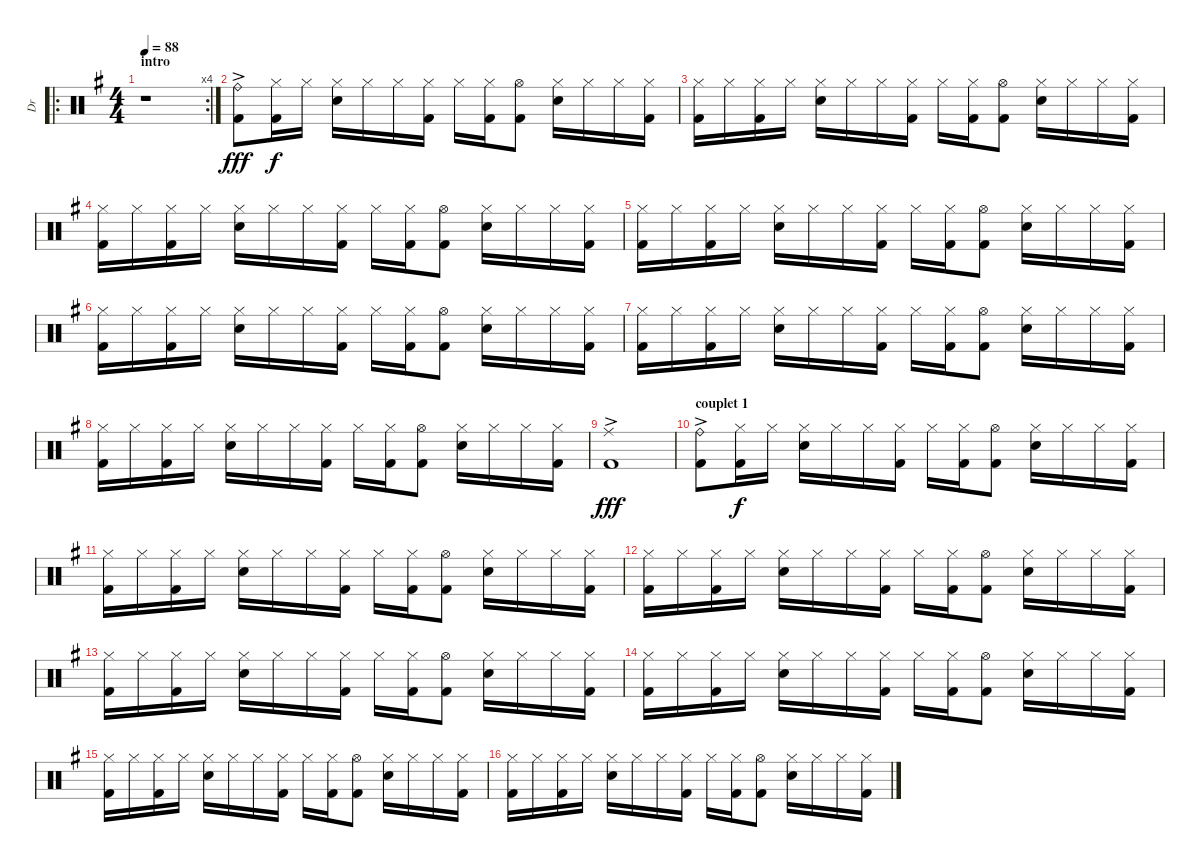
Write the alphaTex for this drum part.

\track ("Dr" "Dr") {instrument percussion}
\staff {score}
\articulation defaults
\ro
\rc 4
\ts (4 4)
\section ("" "intro")
\tempo 88
\clef neutral
\ks g
r.1{dy fff} |
("Ride (bell)"{ac} "Kick (hit) 2"{ac}).8 ("Hi-Hat (closed)" "Kick (hit) 2").16{dy f} "Hi-Hat (closed)".16 ("Hi-Hat (closed)" "Electric Snare (hit)").16 "Hi-Hat (closed)".16 "Hi-Hat (closed)".16 ("Hi-Hat (closed)" "Kick (hit) 2").16 "Hi-Hat (closed)".16 ("Hi-Hat (closed)" "Kick (hit) 2").16 ("Hi-Hat (open)" "Kick (hit) 2").8 ("Hi-Hat (closed)" "Electric Snare (hit)").16 "Hi-Hat (closed)".16 "Hi-Hat (closed)".16 ("Hi-Hat (closed)" "Kick (hit) 2").16 |
("Hi-Hat (closed)" "Kick (hit) 2").16 "Hi-Hat (closed)".16 ("Hi-Hat (closed)" "Kick (hit) 2").16 "Hi-Hat (closed)".16 ("Hi-Hat (closed)" "Electric Snare (hit)").16 "Hi-Hat (closed)".16 "Hi-Hat (closed)".16 ("Hi-Hat (closed)" "Kick (hit) 2").16 "Hi-Hat (closed)".16 ("Hi-Hat (closed)" "Kick (hit) 2").16 ("Hi-Hat (open)" "Kick (hit) 2").8 ("Hi-Hat (closed)" "Electric Snare (hit)").16 "Hi-Hat (closed)".16 "Hi-Hat (closed)".16 ("Hi-Hat (closed)" "Kick (hit) 2").16 |
("Hi-Hat (closed)" "Kick (hit) 2").16 "Hi-Hat (closed)".16 ("Hi-Hat (closed)" "Kick (hit) 2").16 "Hi-Hat (closed)".16 ("Hi-Hat (closed)" "Electric Snare (hit)").16 "Hi-Hat (closed)".16 "Hi-Hat (closed)".16 ("Hi-Hat (closed)" "Kick (hit) 2").16 "Hi-Hat (closed)".16 ("Hi-Hat (closed)" "Kick (hit) 2").16 ("Hi-Hat (open)" "Kick (hit) 2").8 ("Hi-Hat (closed)" "Electric Snare (hit)").16 "Hi-Hat (closed)".16 "Hi-Hat (closed)".16 ("Hi-Hat (closed)" "Kick (hit) 2").16 |
("Hi-Hat (closed)" "Kick (hit) 2").16 "Hi-Hat (closed)".16 ("Hi-Hat (closed)" "Kick (hit) 2").16 "Hi-Hat (closed)".16 ("Hi-Hat (closed)" "Electric Snare (hit)").16 "Hi-Hat (closed)".16 "Hi-Hat (closed)".16 ("Hi-Hat (closed)" "Kick (hit) 2").16 "Hi-Hat (closed)".16 ("Hi-Hat (closed)" "Kick (hit) 2").16 ("Hi-Hat (open)" "Kick (hit) 2").8 ("Hi-Hat (closed)" "Electric Snare (hit)").16 "Hi-Hat (closed)".16 "Hi-Hat (closed)".16 ("Hi-Hat (closed)" "Kick (hit) 2").16 |
("Hi-Hat (closed)" "Kick (hit) 2").16 "Hi-Hat (closed)".16 ("Hi-Hat (closed)" "Kick (hit) 2").16 "Hi-Hat (closed)".16 ("Hi-Hat (closed)" "Electric Snare (hit)").16 "Hi-Hat (closed)".16 "Hi-Hat (closed)".16 ("Hi-Hat (closed)" "Kick (hit) 2").16 "Hi-Hat (closed)".16 ("Hi-Hat (closed)" "Kick (hit) 2").16 ("Hi-Hat (open)" "Kick (hit) 2").8 ("Hi-Hat (closed)" "Electric Snare (hit)").16 "Hi-Hat (closed)".16 "Hi-Hat (closed)".16 ("Hi-Hat (closed)" "Kick (hit) 2").16 |
("Hi-Hat (closed)" "Kick (hit) 2").16 "Hi-Hat (closed)".16 ("Hi-Hat (closed)" "Kick (hit) 2").16 "Hi-Hat (closed)".16 ("Hi-Hat (closed)" "Electric Snare (hit)").16 "Hi-Hat (closed)".16 "Hi-Hat (closed)".16 ("Hi-Hat (closed)" "Kick (hit) 2").16 "Hi-Hat (closed)".16 ("Hi-Hat (closed)" "Kick (hit) 2").16 ("Hi-Hat (open)" "Kick (hit) 2").8 ("Hi-Hat (closed)" "Electric Snare (hit)").16 "Hi-Hat (closed)".16 "Hi-Hat (closed)".16 ("Hi-Hat (closed)" "Kick (hit) 2").16 |
("Hi-Hat (closed)" "Kick (hit) 2").16 "Hi-Hat (closed)".16 ("Hi-Hat (closed)" "Kick (hit) 2").16 "Hi-Hat (closed)".16 ("Hi-Hat (closed)" "Electric Snare (hit)").16 "Hi-Hat (closed)".16 "Hi-Hat (closed)".16 ("Hi-Hat (closed)" "Kick (hit) 2").16 "Hi-Hat (closed)".16 ("Hi-Hat (closed)" "Kick (hit) 2").16 ("Hi-Hat (open)" "Kick (hit) 2").8 ("Hi-Hat (closed)" "Electric Snare (hit)").16 "Hi-Hat (closed)".16 "Hi-Hat (closed)".16 ("Hi-Hat (closed)" "Kick (hit) 2").16 |
("Ride (middle)"{ac} "Kick (hit) 2"{ac}).1{dy fff} |
\section ("" "couplet 1")
("Ride (bell)"{ac} "Kick (hit) 2"{ac}).8 ("Hi-Hat (closed)" "Kick (hit) 2").16{dy f} "Hi-Hat (closed)".16 ("Hi-Hat (closed)" "Electric Snare (hit)").16 "Hi-Hat (closed)".16 "Hi-Hat (closed)".16 ("Hi-Hat (closed)" "Kick (hit) 2").16 "Hi-Hat (closed)".16 ("Hi-Hat (closed)" "Kick (hit) 2").16 ("Hi-Hat (open)" "Kick (hit) 2").8 ("Hi-Hat (closed)" "Electric Snare (hit)").16 "Hi-Hat (closed)".16 "Hi-Hat (closed)".16 ("Hi-Hat (closed)" "Kick (hit) 2").16 |
("Hi-Hat (closed)" "Kick (hit) 2").16 "Hi-Hat (closed)".16 ("Hi-Hat (closed)" "Kick (hit) 2").16 "Hi-Hat (closed)".16 ("Hi-Hat (closed)" "Electric Snare (hit)").16 "Hi-Hat (closed)".16 "Hi-Hat (closed)".16 ("Hi-Hat (closed)" "Kick (hit) 2").16 "Hi-Hat (closed)".16 ("Hi-Hat (closed)" "Kick (hit) 2").16 ("Hi-Hat (open)" "Kick (hit) 2").8 ("Hi-Hat (closed)" "Electric Snare (hit)").16 "Hi-Hat (closed)".16 "Hi-Hat (closed)".16 ("Hi-Hat (closed)" "Kick (hit) 2").16 |
("Hi-Hat (closed)" "Kick (hit) 2").16 "Hi-Hat (closed)".16 ("Hi-Hat (closed)" "Kick (hit) 2").16 "Hi-Hat (closed)".16 ("Hi-Hat (closed)" "Electric Snare (hit)").16 "Hi-Hat (closed)".16 "Hi-Hat (closed)".16 ("Hi-Hat (closed)" "Kick (hit) 2").16 "Hi-Hat (closed)".16 ("Hi-Hat (closed)" "Kick (hit) 2").16 ("Hi-Hat (open)" "Kick (hit) 2").8 ("Hi-Hat (closed)" "Electric Snare (hit)").16 "Hi-Hat (closed)".16 "Hi-Hat (closed)".16 ("Hi-Hat (closed)" "Kick (hit) 2").16 |
("Hi-Hat (closed)" "Kick (hit) 2").16 "Hi-Hat (closed)".16 ("Hi-Hat (closed)" "Kick (hit) 2").16 "Hi-Hat (closed)".16 ("Hi-Hat (closed)" "Electric Snare (hit)").16 "Hi-Hat (closed)".16 "Hi-Hat (closed)".16 ("Hi-Hat (closed)" "Kick (hit) 2").16 "Hi-Hat (closed)".16 ("Hi-Hat (closed)" "Kick (hit) 2").16 ("Hi-Hat (open)" "Kick (hit) 2").8 ("Hi-Hat (closed)" "Electric Snare (hit)").16 "Hi-Hat (closed)".16 "Hi-Hat (closed)".16 ("Hi-Hat (closed)" "Kick (hit) 2").16 |
("Hi-Hat (closed)" "Kick (hit) 2").16 "Hi-Hat (closed)".16 ("Hi-Hat (closed)" "Kick (hit) 2").16 "Hi-Hat (closed)".16 ("Hi-Hat (closed)" "Electric Snare (hit)").16 "Hi-Hat (closed)".16 "Hi-Hat (closed)".16 ("Hi-Hat (closed)" "Kick (hit) 2").16 "Hi-Hat (closed)".16 ("Hi-Hat (closed)" "Kick (hit) 2").16 ("Hi-Hat (open)" "Kick (hit) 2").8 ("Hi-Hat (closed)" "Electric Snare (hit)").16 "Hi-Hat (closed)".16 "Hi-Hat (closed)".16 ("Hi-Hat (closed)" "Kick (hit) 2").16 |
("Hi-Hat (closed)" "Kick (hit) 2").16 "Hi-Hat (closed)".16 ("Hi-Hat (closed)" "Kick (hit) 2").16 "Hi-Hat (closed)".16 ("Hi-Hat (closed)" "Electric Snare (hit)").16 "Hi-Hat (closed)".16 "Hi-Hat (closed)".16 ("Hi-Hat (closed)" "Kick (hit) 2").16 "Hi-Hat (closed)".16 ("Hi-Hat (closed)" "Kick (hit) 2").16 ("Hi-Hat (open)" "Kick (hit) 2").8 ("Hi-Hat (closed)" "Electric Snare (hit)").16 "Hi-Hat (closed)".16 "Hi-Hat (closed)".16 ("Hi-Hat (closed)" "Kick (hit) 2").16 |
("Hi-Hat (closed)" "Kick (hit) 2").16 "Hi-Hat (closed)".16 ("Hi-Hat (closed)" "Kick (hit) 2").16 "Hi-Hat (closed)".16 ("Hi-Hat (closed)" "Electric Snare (hit)").16 "Hi-Hat (closed)".16 "Hi-Hat (closed)".16 ("Hi-Hat (closed)" "Kick (hit) 2").16 "Hi-Hat (closed)".16 ("Hi-Hat (closed)" "Kick (hit) 2").16 ("Hi-Hat (open)" "Kick (hit) 2").8 ("Hi-Hat (closed)" "Electric Snare (hit)").16 "Hi-Hat (closed)".16 "Hi-Hat (closed)".16 ("Hi-Hat (closed)" "Kick (hit) 2").16
